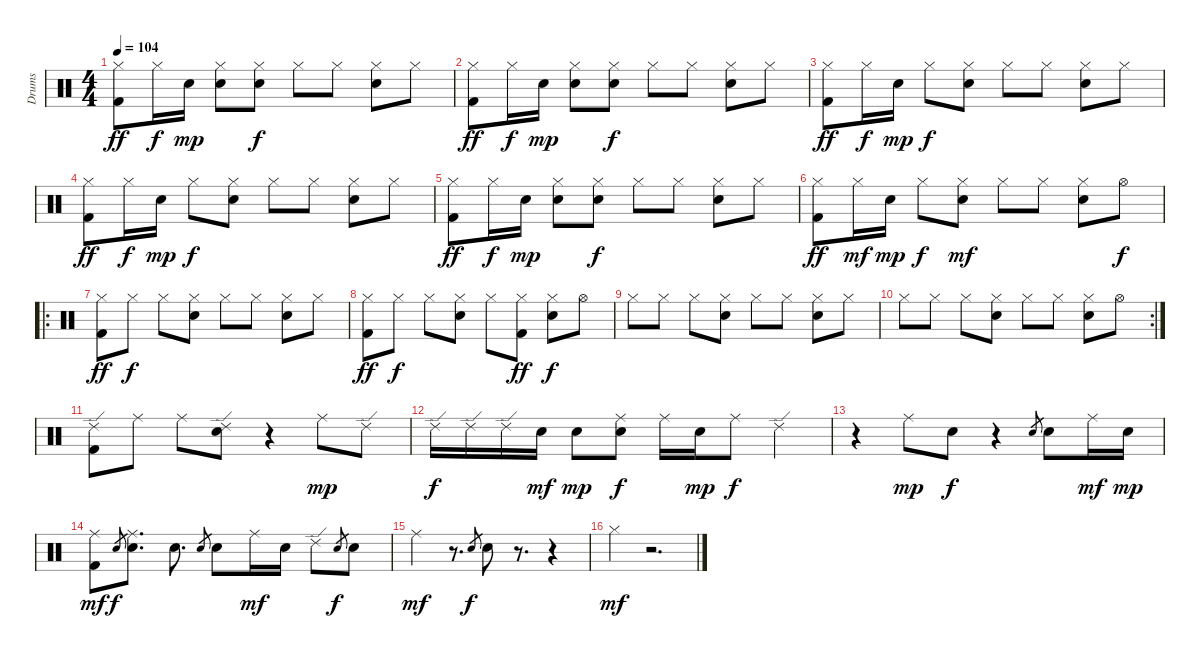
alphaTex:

\track ("Drums" "Drums") {instrument percussion}
\staff {score}
\articulation defaults
\ts (4 4)
\tempo 104
\clef neutral
\ks c
("Hi-Hat (closed)" "Kick (hit) 2").8{dy ff} "Hi-Hat (closed)".16{dy f} "Electric Snare (hit)".16{dy mp} ("Hi-Hat (closed)" "Electric Snare (hit)").8 ("Hi-Hat (closed)" "Electric Snare (hit)").8{dy f} "Hi-Hat (closed)".8 "Hi-Hat (closed)".8 ("Hi-Hat (closed)" "Electric Snare (hit)").8 "Hi-Hat (closed)".8 |
("Hi-Hat (closed)" "Kick (hit) 2").8{dy ff} "Hi-Hat (closed)".16{dy f} "Electric Snare (hit)".16{dy mp} ("Hi-Hat (closed)" "Electric Snare (hit)").8 ("Hi-Hat (closed)" "Electric Snare (hit)").8{dy f} "Hi-Hat (closed)".8 "Hi-Hat (closed)".8 ("Hi-Hat (closed)" "Electric Snare (hit)").8 "Hi-Hat (closed)".8 |
("Hi-Hat (closed)" "Kick (hit) 2").8{dy ff} "Hi-Hat (closed)".16{dy f} "Electric Snare (hit)".16{dy mp} "Hi-Hat (closed)".8{dy f} ("Hi-Hat (closed)" "Electric Snare (hit)").8 "Hi-Hat (closed)".8 "Hi-Hat (closed)".8 ("Hi-Hat (closed)" "Electric Snare (hit)").8 "Hi-Hat (closed)".8 |
("Hi-Hat (closed)" "Kick (hit) 2").8{dy ff} "Hi-Hat (closed)".16{dy f} "Electric Snare (hit)".16{dy mp} "Hi-Hat (closed)".8{dy f} ("Hi-Hat (closed)" "Electric Snare (hit)").8 "Hi-Hat (closed)".8 "Hi-Hat (closed)".8 ("Hi-Hat (closed)" "Electric Snare (hit)").8 "Hi-Hat (closed)".8 |
("Hi-Hat (closed)" "Kick (hit) 2").8{dy ff} "Hi-Hat (closed)".16{dy f} "Electric Snare (hit)".16{dy mp} ("Hi-Hat (closed)" "Electric Snare (hit)").8 ("Hi-Hat (closed)" "Electric Snare (hit)").8{dy f} "Hi-Hat (closed)".8 "Hi-Hat (closed)".8 ("Hi-Hat (closed)" "Electric Snare (hit)").8 "Hi-Hat (closed)".8 |
("Hi-Hat (closed)" "Kick (hit) 2").8{dy ff} "Hi-Hat (closed)".16{dy mf} "Electric Snare (hit)".16{dy mp} "Hi-Hat (closed)".8{dy f} ("Hi-Hat (closed)" "Electric Snare (hit)").8{dy mf} "Hi-Hat (closed)".8 "Hi-Hat (closed)".8 ("Hi-Hat (closed)" "Electric Snare (hit)").8 "Hi-Hat (open)".8{dy f} |
\ro
("Hi-Hat (closed)" "Kick (hit) 2").8{dy ff} "Hi-Hat (closed)".8{dy f} "Hi-Hat (closed)".8 ("Hi-Hat (closed)" "Electric Snare (hit)").8 "Hi-Hat (closed)".8 "Hi-Hat (closed)".8 ("Hi-Hat (closed)" "Electric Snare (hit)").8 "Hi-Hat (closed)".8 |
("Hi-Hat (closed)" "Kick (hit) 2").8{dy ff} "Hi-Hat (closed)".8{dy f} "Hi-Hat (closed)".8 ("Hi-Hat (closed)" "Electric Snare (hit)").8 "Hi-Hat (closed)".8 ("Hi-Hat (closed)" "Kick (hit) 2").8{dy ff} ("Hi-Hat (closed)" "Electric Snare (hit)").8{dy f} "Hi-Hat (open)".8 |
"Hi-Hat (closed)".8 "Hi-Hat (closed)".8 "Hi-Hat (closed)".8 ("Hi-Hat (closed)" "Electric Snare (hit)").8 "Hi-Hat (closed)".8 "Hi-Hat (closed)".8 ("Hi-Hat (closed)" "Electric Snare (hit)").8 "Hi-Hat (closed)".8 |
\rc 2 "Hi-Hat (closed)".8 "Hi-Hat (closed)".8 "Hi-Hat (closed)".8
("Hi-Hat (closed)" "Electric Snare (hit)").8 "Hi-Hat (closed)".8 "Hi-Hat (closed)".8 ("Hi-Hat (closed)" "Electric Snare (hit)").8 "Hi-Hat (open)".8 |
("Ride (edge) 2" "Kick (hit) 2").8 "Ride (middle)".8 "Ride (middle)".8 ("Ride (edge) 2" "Electric Snare (hit)").8 r.4 "Ride (middle)".8{dy mp} "Ride (edge) 2".8 |
"Ride (edge) 2".16{dy f} "Ride (edge) 2".16 "Ride (edge) 2".16 "Electric Snare (hit)".16{dy mf} "Electric Snare (hit)".8{dy mp} ("Ride (middle)" "Electric Snare (hit)").8{dy f} "Ride (middle)".16 "Electric Snare (hit)".16{dy mp} "Ride (middle)".8{dy f} "Ride (edge) 2".4 |
r.4 "Ride (middle)".8{dy mp} "Electric Snare (hit)".8{dy f} r.4 "Electric Snare (hit)".8{gr} "Electric Snare (hit)".8 "Ride (middle)".16{dy mf} "Electric Snare (hit)".16{dy mp} |
("Ride (middle)" "Kick (hit) 2").8{dy mf} "Electric Snare (hit)".8{gr dy f} ("Ride (middle)" "Electric Snare (hit)").8{d} "Electric Snare (hit)".8{d} "Electric Snare (hit)".8{gr} "Electric Snare (hit)".8 "Ride (middle)".16{dy mf} "Electric Snare (hit)".16 "Ride (edge) 2".8 "Electric Snare (hit)".8{gr dy f} "Electric Snare (hit)".8 |
"Ride (middle)".4{dy mf} r.8{d} "Electric Snare (hit)".8{gr dy f} "Electric Snare (hit)".8 r.8{d} r.4 |
"Hi-Hat (closed)".4{dy mf} r.2{d}
